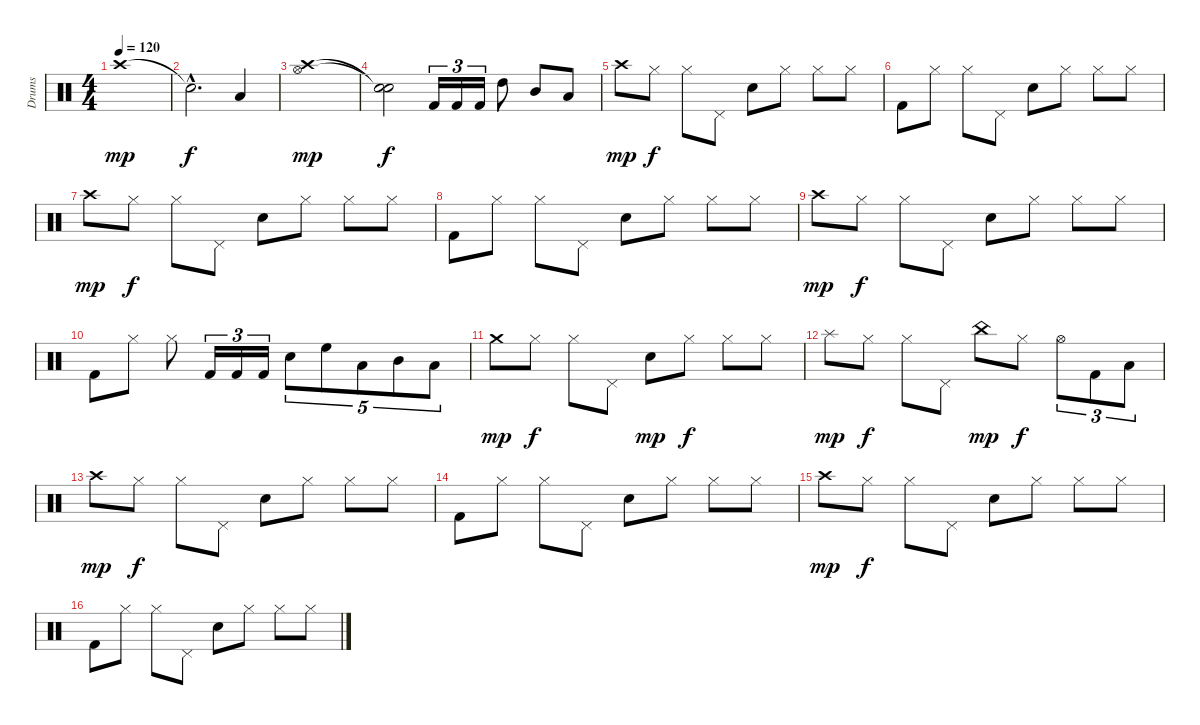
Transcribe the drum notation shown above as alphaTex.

\track ("Drums" "Drums") {instrument percussion}
\staff {score}
\articulation defaults
\ts (4 4)
\tempo 120
\clef neutral
\ks c "Crash high (hit)".1{dy mp}
|
"Snare (hit)"{hac t}.2{d dy f} "Low Tom (hit)".4 |
("Hi-Hat (open)" "Crash high (hit)").1{dy mp} |
("Snare (hit)"{t} "Snare (hit)"{t}).2{dy f} "Kick (hit) 2".16{tu (3 2)} "Kick (hit) 2".16{tu (3 2)} "Kick (hit) 2".16{tu (3 2)} "High Tom (hit)".8 "Mid Tom (hit)".8 "Low Tom (hit)".8 |
"Crash high (hit)".8{dy mp} "Hi-Hat (closed)".8{dy f} "Hi-Hat (closed)".8 "Pedal Hi-Hat (hit)".8 "Electric Snare (hit)".8 "Hi-Hat (closed)".8 "Hi-Hat (closed)".8 "Hi-Hat (closed)".8 |
"Kick (hit) 2".8 "Hi-Hat (closed)".8 "Hi-Hat (closed)".8 "Pedal Hi-Hat (hit)".8 "Electric Snare (hit)".8 "Hi-Hat (closed)".8 "Hi-Hat (closed)".8 "Hi-Hat (closed)".8 |
"Crash high (hit)".8{dy mp} "Hi-Hat (closed)".8{dy f} "Hi-Hat (closed)".8 "Pedal Hi-Hat (hit)".8 "Electric Snare (hit)".8 "Hi-Hat (closed)".8 "Hi-Hat (closed)".8 "Hi-Hat (closed)".8 |
"Kick (hit) 2".8 "Hi-Hat (closed)".8 "Hi-Hat (closed)".8 "Pedal Hi-Hat (hit)".8 "Electric Snare (hit)".8 "Hi-Hat (closed)".8 "Hi-Hat (closed)".8 "Hi-Hat (closed)".8 |
"Crash high (hit)".8{dy mp} "Hi-Hat (closed)".8{dy f} "Hi-Hat (closed)".8 "Pedal Hi-Hat (hit)".8 "Electric Snare (hit)".8 "Hi-Hat (closed)".8 "Hi-Hat (closed)".8 "Hi-Hat (closed)".8 |
"Kick (hit) 2".8 "Hi-Hat (closed)".8 "Hi-Hat (closed)".8 "Kick (hit) 2".16{tu (3 2)} "Kick (hit) 2".16{tu (3 2)} "Kick (hit) 2".16{tu (3 2)} "Electric Snare (hit)".8{tu (5 4)} "High Floor Tom (hit)".8{tu (5 4)} "Low Tom (hit)".8{tu (5 4)} "Mid Tom (hit)".8{tu (5 4)} "Low Tom (hit)".8{tu (5 4)} |
"Crash medium (hit)".8{dy mp} "Hi-Hat (closed)".8{dy f} "Hi-Hat (closed)".8 "Pedal Hi-Hat (hit)".8 "Electric Snare (hit)".8{dy mp} "Hi-Hat (closed)".8{dy f} "Hi-Hat (closed)".8 "Hi-Hat (closed)".8 |
"Splash (hit)".8{dy mp} "Hi-Hat (closed)".8{dy f} "Hi-Hat (closed)".8 "Pedal Hi-Hat (hit)".8 "China (hit)".8{dy mp} "Hi-Hat (closed)".8{dy f} "Hi-Hat (open)".8{tu (3 2)} "Kick (hit) 2".8{tu (3 2)} "Low Tom (hit)".8{tu (3 2)} |
"Crash high (hit)".8{dy mp} "Hi-Hat (closed)".8{dy f} "Hi-Hat (closed)".8 "Pedal Hi-Hat (hit)".8 "Electric Snare (hit)".8 "Hi-Hat (closed)".8 "Hi-Hat (closed)".8 "Hi-Hat (closed)".8 |
"Kick (hit) 2".8 "Hi-Hat (closed)".8 "Hi-Hat (closed)".8 "Pedal Hi-Hat (hit)".8 "Electric Snare (hit)".8 "Hi-Hat (closed)".8 "Hi-Hat (closed)".8 "Hi-Hat (closed)".8 |
"Crash high (hit)".8{dy mp} "Hi-Hat (closed)".8{dy f} "Hi-Hat (closed)".8 "Pedal Hi-Hat (hit)".8 "Electric Snare (hit)".8 "Hi-Hat (closed)".8 "Hi-Hat (closed)".8 "Hi-Hat (closed)".8 |
"Kick (hit) 2".8 "Hi-Hat (closed)".8 "Hi-Hat (closed)".8 "Pedal Hi-Hat (hit)".8 "Electric Snare (hit)".8 "Hi-Hat (closed)".8 "Hi-Hat (closed)".8 "Hi-Hat (closed)".8
